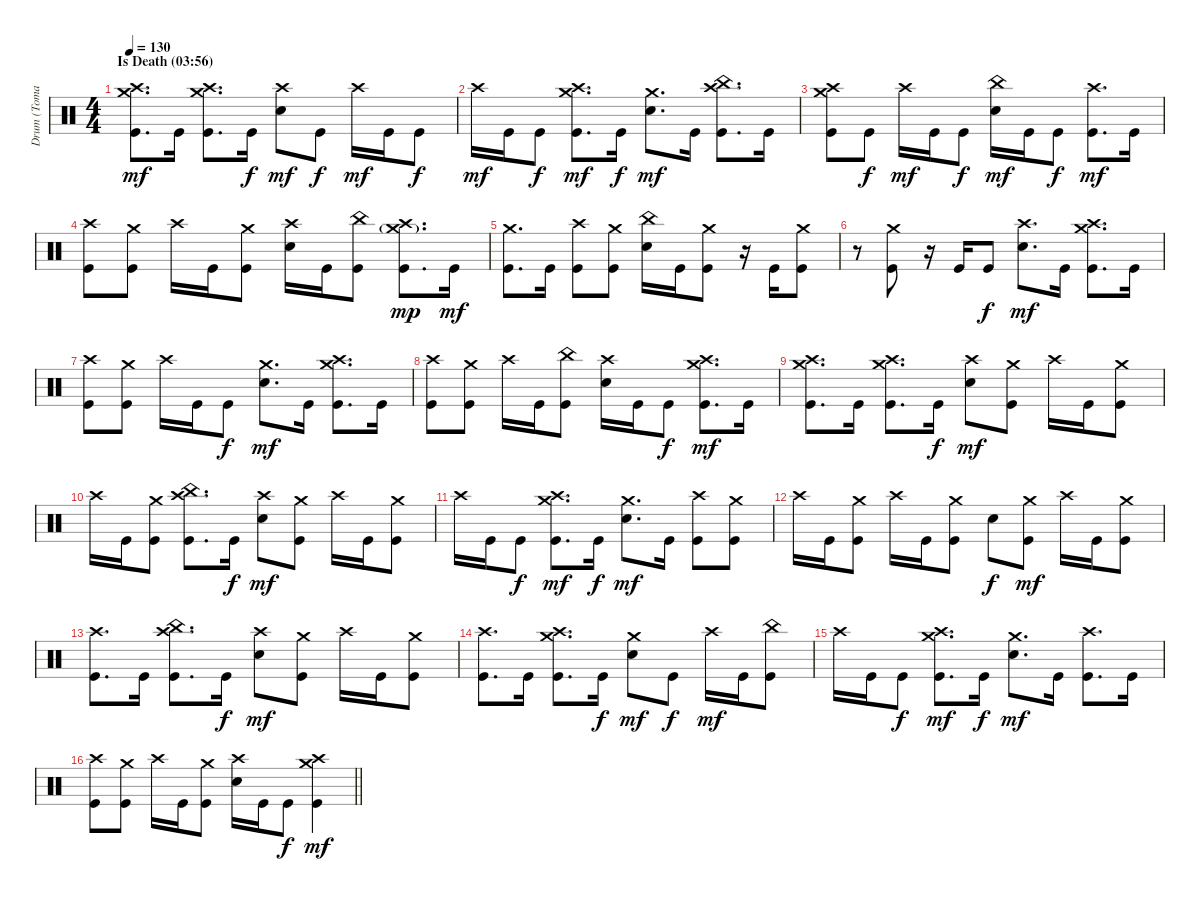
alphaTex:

\track ("Drum (Tomas Haake)" "Drum (Toma") {instrument percussion}
\staff {score}
\articulation defaults
\ts (4 4)
\section ("" "Is Death (03:56)")
\tempo 130
\clef neutral
\ks c
("Crash high (hit)" "Crash medium (hit)" "Kick (hit)").8{d dy mf} "Kick (hit)".16 ("Crash high (hit)" "Crash medium (hit)" "Kick (hit)").8{d} "Kick (hit)".16{dy f} ("Crash high (hit)" "Electric Snare (hit)").8{dy mf} "Kick (hit)".8{dy f} "Crash high (hit)".16{dy mf} "Kick (hit)".16 "Kick (hit)".8{dy f} |
"Crash high (hit)".16{dy mf} "Kick (hit)".16 "Kick (hit)".8{dy f} ("Crash high (hit)" "Crash medium (hit)" "Kick (hit)").8{d dy mf} "Kick (hit)".16{dy f} ("Crash medium (hit)" "Electric Snare (hit)").8{d dy mf} "Kick (hit)".16 ("Crash high (hit)" "China (hit)" "Kick (hit)").8{d} "Kick (hit)".16 |
("Crash high (hit)" "Crash medium (hit)" "Kick (hit)").8 "Kick (hit)".8{dy f} "Crash high (hit)".16{dy mf} "Kick (hit)".16 "Kick (hit)".8{dy f} ("China (hit)" "Electric Snare (hit)").16{dy mf} "Kick (hit)".16 "Kick (hit)".8{dy f} ("Crash high (hit)" "Kick (hit)").8{d dy mf} "Kick (hit)".16 |
("Crash high (hit)" "Kick (hit)").8 ("Crash medium (hit)" "Kick (hit)").8 "Crash high (hit)".16 "Kick (hit)".16 ("Crash medium (hit)" "Kick (hit)").8 ("Crash high (hit)" "Electric Snare (hit)").16 "Kick (hit)".16 ("China (hit)" "Kick (hit)").8 ("Crash high (hit)" "Crash medium (hit)"{g} "Kick (hit)").8{d dy mp} "Kick (hit)".16{dy mf} |
("Crash medium (hit)" "Kick (hit)").8{d} "Kick (hit)".16 ("Crash high (hit)" "Kick (hit)").8 ("Crash medium (hit)" "Kick (hit)").8 ("China (hit)" "Electric Snare (hit)").16 "Kick (hit)".16 ("Crash medium (hit)" "Kick (hit)").8 r.16 "Kick (hit)".16 ("Crash medium (hit)" "Kick (hit)").8 |
r.8 ("Crash medium (hit)" "Kick (hit)").8 r.16 "Kick (hit)".16 "Kick (hit)".8{dy f} ("Crash high (hit)" "Electric Snare (hit)").8{d dy mf} "Kick (hit)".16 ("Crash high (hit)" "Crash medium (hit)" "Kick (hit)").8{d} "Kick (hit)".16 |
("Crash high (hit)" "Kick (hit)").8 ("Crash medium (hit)" "Kick (hit)").8 "Crash high (hit)".16 "Kick (hit)".16 "Kick (hit)".8{dy f} ("Crash medium (hit)" "Electric Snare (hit)").8{d dy mf} "Kick (hit)".16 ("Crash high (hit)" "Crash medium (hit)" "Kick (hit)").8{d} "Kick (hit)".16 |
("Crash high (hit)" "Kick (hit)").8 ("Crash medium (hit)" "Kick (hit)").8 "Crash high (hit)".16 "Kick (hit)".16 ("China (hit)" "Kick (hit)").8 ("Crash high (hit)" "Electric Snare (hit)").16 "Kick (hit)".16 "Kick (hit)".8{dy f} ("Crash high (hit)" "Crash medium (hit)" "Kick (hit)").8{d dy mf} "Kick (hit)".16 |
("Crash high (hit)" "Crash medium (hit)" "Kick (hit)").8{d} "Kick (hit)".16 ("Crash high (hit)" "Crash medium (hit)" "Kick (hit)").8{d} "Kick (hit)".16{dy f} ("Crash high (hit)" "Electric Snare (hit)").8{dy mf} ("Crash medium (hit)" "Kick (hit)").8 "Crash high (hit)".16 "Kick (hit)".16 ("Crash medium (hit)" "Kick (hit)").8 |
"Crash high (hit)".16 "Kick (hit)".16 ("Crash medium (hit)" "Kick (hit)").8 ("Crash high (hit)" "China (hit)" "Kick (hit)").8{d} "Kick (hit)".16{dy f} ("Crash high (hit)" "Electric Snare (hit)").8{dy mf} ("Crash medium (hit)" "Kick (hit)").8 "Crash high (hit)".16 "Kick (hit)".16 ("Crash medium (hit)" "Kick (hit)").8 |
"Crash high (hit)".16 "Kick (hit)".16 "Kick (hit)".8{dy f} ("Crash high (hit)" "Crash medium (hit)" "Kick (hit)").8{d dy mf} "Kick (hit)".16{dy f} ("Crash medium (hit)" "Electric Snare (hit)").8{d dy mf} "Kick (hit)".16 ("Crash high (hit)" "Kick (hit)").8 ("Crash medium (hit)" "Kick (hit)").8 |
"Crash high (hit)".16 "Kick (hit)".16 ("Crash medium (hit)" "Kick (hit)").8 "Crash high (hit)".16 "Kick (hit)".16 ("Crash medium (hit)" "Kick (hit)").8 "Electric Snare (hit)".8{dy f} ("Crash medium (hit)" "Kick (hit)").8{dy mf} "Crash high (hit)".16 "Kick (hit)".16 ("Crash medium (hit)" "Kick (hit)").8 |
("Crash high (hit)" "Kick (hit)").8{d} "Kick (hit)".16 ("Crash high (hit)" "China (hit)" "Kick (hit)").8{d} "Kick (hit)".16{dy f} ("Crash high (hit)" "Electric Snare (hit)").8{dy mf} ("Crash medium (hit)" "Kick (hit)").8 "Crash high (hit)".16 "Kick (hit)".16 ("Crash medium (hit)" "Kick (hit)").8 |
("Crash high (hit)" "Kick (hit)").8{d} "Kick (hit)".16 ("Crash high (hit)" "Crash medium (hit)" "Kick (hit)").8{d} "Kick (hit)".16{dy f} ("Crash medium (hit)" "Electric Snare (hit)").8{dy mf} "Kick (hit)".8{dy f} "Crash high (hit)".16{dy mf} "Kick (hit)".16 ("China (hit)" "Kick (hit)").8 |
"Crash high (hit)".16 "Kick (hit)".16 "Kick (hit)".8{dy f} ("Crash high (hit)" "Crash medium (hit)" "Kick (hit)").8{d dy mf} "Kick (hit)".16{dy f} ("Crash medium (hit)" "Electric Snare (hit)").8{d dy mf} "Kick (hit)".16 ("Crash high (hit)" "Kick (hit)").8{d} "Kick (hit)".16 |
\barLineRight lightlight
("Crash high (hit)" "Kick (hit)").8 ("Crash medium (hit)" "Kick (hit)").8 "Crash high (hit)".16 "Kick (hit)".16 ("Crash medium (hit)" "Kick (hit)").8 ("Crash high (hit)" "Electric Snare (hit)").16 "Kick (hit)".16 "Kick (hit)".8{dy f} ("Crash high (hit)" "Crash medium (hit)" "Kick (hit)").4{dy mf}
